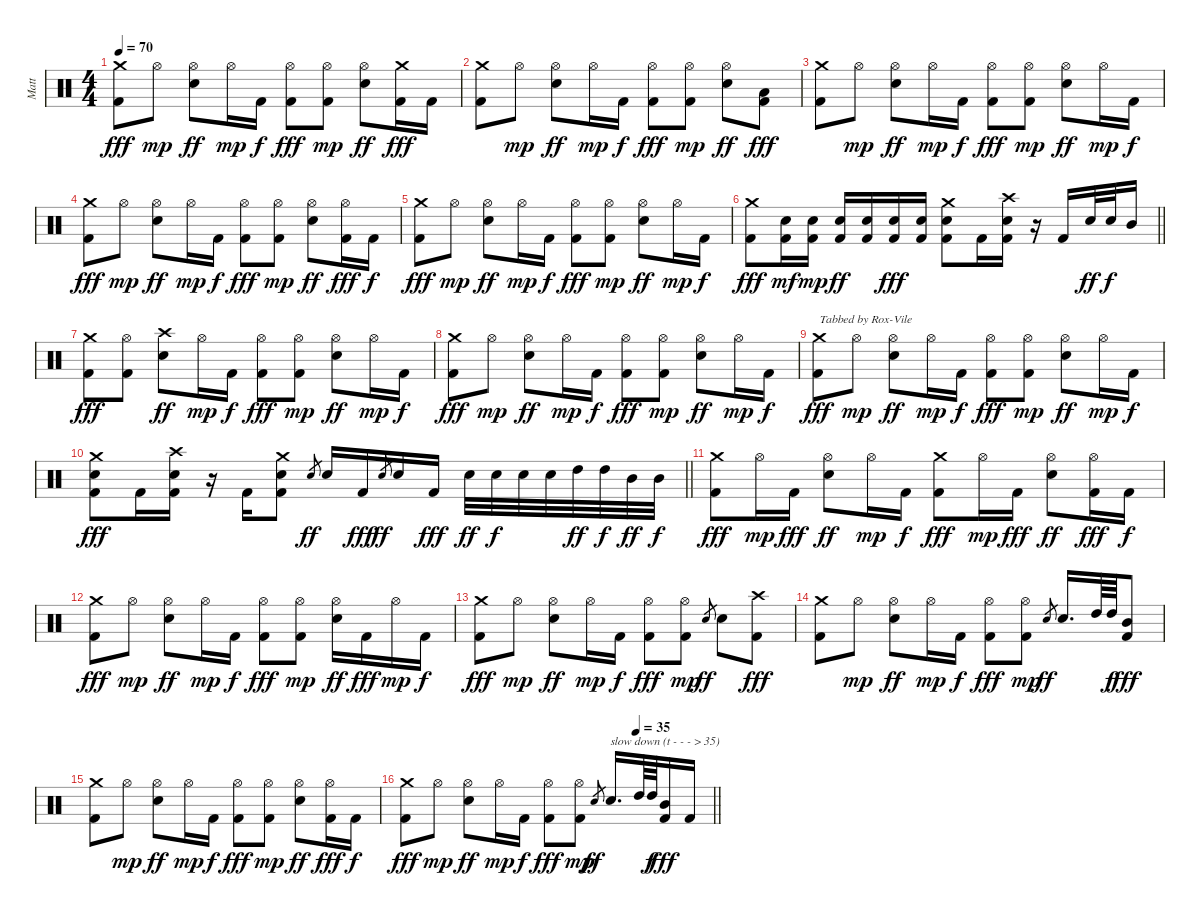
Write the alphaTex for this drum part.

\track ("Matt" "Matt") {instrument percussion}
\staff {score}
\articulation defaults
\ts (4 4)
\tempo 70
\clef neutral
\ks c
("Crash medium (hit)" "Kick (hit) 2").8{dy fff} "Hi-Hat (open)".8{dy mp} ("Hi-Hat (open)" "Snare (hit) 2").8{dy ff} "Hi-Hat (open)".16{dy mp} "Kick (hit) 2".16{dy f} ("Hi-Hat (open)" "Kick (hit) 2").8{dy fff} ("Hi-Hat (open)" "Kick (hit) 2").8{dy mp} ("Hi-Hat (open)" "Snare (hit) 2").8{dy ff} ("Crash medium (hit)" "Kick (hit) 2").16{dy fff} "Kick (hit) 2".16 |
("Crash medium (hit)" "Kick (hit) 2").8 "Hi-Hat (open)".8{dy mp} ("Hi-Hat (open)" "Snare (hit) 2").8{dy ff} "Hi-Hat (open)".16{dy mp} "Kick (hit) 2".16{dy f} ("Hi-Hat (open)" "Kick (hit) 2").8{dy fff} ("Hi-Hat (open)" "Kick (hit) 2").8{dy mp} ("Hi-Hat (open)" "Snare (hit) 2").8{dy ff} ("Low Tom (hit)" "Kick (hit) 2").8{dy fff} |
("Crash medium (hit)" "Kick (hit) 2").8 "Hi-Hat (open)".8{dy mp} ("Hi-Hat (open)" "Snare (hit) 2").8{dy ff} "Hi-Hat (open)".16{dy mp} "Kick (hit) 2".16{dy f} ("Hi-Hat (open)" "Kick (hit) 2").8{dy fff} ("Hi-Hat (open)" "Kick (hit) 2").8{dy mp} ("Hi-Hat (open)" "Snare (hit) 2").8{dy ff} "Hi-Hat (open)".16{dy mp} "Kick (hit) 2".16{dy f} |
("Crash medium (hit)" "Kick (hit) 2").8{dy fff} "Hi-Hat (open)".8{dy mp} ("Hi-Hat (open)" "Snare (hit) 2").8{dy ff} "Hi-Hat (open)".16{dy mp} "Kick (hit) 2".16{dy f} ("Hi-Hat (open)" "Kick (hit) 2").8{dy fff} ("Hi-Hat (open)" "Kick (hit) 2").8{dy mp} ("Hi-Hat (open)" "Snare (hit) 2").8{dy ff} ("Hi-Hat (open)" "Kick (hit) 2").16{dy fff} "Kick (hit) 2".16{dy f} |
("Crash medium (hit)" "Kick (hit) 2").8{dy fff} "Hi-Hat (open)".8{dy mp} ("Hi-Hat (open)" "Snare (hit) 2").8{dy ff} "Hi-Hat (open)".16{dy mp} "Kick (hit) 2".16{dy f} ("Hi-Hat (open)" "Kick (hit) 2").8{dy fff} ("Hi-Hat (open)" "Kick (hit) 2").8{dy mp} ("Hi-Hat (open)" "Snare (hit) 2").8{dy ff} "Hi-Hat (open)".16{dy mp} "Kick (hit) 2".16{dy f} |
\barLineRight lightlight
("Crash medium (hit)" "Kick (hit) 2").8{dy fff} ("Snare (hit) 2" "Kick (hit) 2").16{dy mf} ("Snare (hit) 2" "Kick (hit) 2").16{dy mp} ("Snare (hit) 2" "Kick (hit) 2").16{dy ff} ("Snare (hit) 2" "Kick (hit) 2").16 ("Snare (hit) 2" "Kick (hit) 2").16{dy fff} ("Snare (hit) 2" "Kick (hit) 2").16 ("Crash medium (hit)" "Snare (hit) 2" "Kick (hit) 2").8 "Kick (hit) 2".16 ("Crash high (hit)" "Snare (hit) 2" "Kick (hit) 2").16 r.16 "Kick (hit) 2".16 "Snare (hit) 2".32{dy ff} "Snare (hit) 2".32{dy f} "Mid Tom (hit)".16 |
("Crash medium (hit)" "Kick (hit) 2").8{dy fff} ("Hi-Hat (open)" "Kick (hit) 2").8 ("Crash high (hit)" "Snare (hit) 2").8{dy ff} "Hi-Hat (open)".16{dy mp} "Kick (hit) 2".16{dy f} ("Hi-Hat (open)" "Kick (hit) 2").8{dy fff} ("Hi-Hat (open)" "Kick (hit) 2").8{dy mp} ("Hi-Hat (open)" "Snare (hit) 2").8{dy ff} "Hi-Hat (open)".16{dy mp} "Kick (hit) 2".16{dy f} |
("Crash medium (hit)" "Kick (hit) 2").8{dy fff} "Hi-Hat (open)".8{dy mp} ("Hi-Hat (open)" "Snare (hit) 2").8{dy ff} "Hi-Hat (open)".16{dy mp} "Kick (hit) 2".16{dy f} ("Hi-Hat (open)" "Kick (hit) 2").8{dy fff} ("Hi-Hat (open)" "Kick (hit) 2").8{dy mp} ("Hi-Hat (open)" "Snare (hit) 2").8{dy ff} "Hi-Hat (open)".16{dy mp} "Kick (hit) 2".16{dy f} |
("Crash medium (hit)" "Kick (hit) 2").8{txt "Tabbed by Rox-Vile" dy fff} "Hi-Hat (open)".8{dy mp} ("Hi-Hat (open)" "Snare (hit) 2").8{dy ff} "Hi-Hat (open)".16{dy mp} "Kick (hit) 2".16{dy f} ("Hi-Hat (open)" "Kick (hit) 2").8{dy fff} ("Hi-Hat (open)" "Kick (hit) 2").8{dy mp} ("Hi-Hat (open)" "Snare (hit) 2").8{dy ff} "Hi-Hat (open)".16{dy mp} "Kick (hit) 2".16{dy f} |
\barLineRight lightlight
("Crash medium (hit)" "Snare (hit) 2" "Kick (hit) 2").8{dy fff} "Kick (hit) 2".16 ("Crash high (hit)" "Snare (hit) 2" "Kick (hit) 2").16 r.16 "Kick (hit) 2".16 ("Crash medium (hit)" "Snare (hit) 2" "Kick (hit) 2").8 "Snare (hit) 2".8{gr dy ff} "Snare (hit) 2".16 "Kick (hit) 2".16{dy fff} "Snare (hit) 2".8{gr dy ff} "Snare (hit) 2".16 "Kick (hit) 2".16{dy fff} "Snare (hit) 2".32{dy ff} "Snare (hit) 2".32{dy f} "Snare (hit) 2".32 "Snare (hit) 2".32 "High Tom (hit)".32{dy ff} "High Tom (hit)".32{dy f} "Mid Tom (hit)".32{dy ff} "Mid Tom (hit)".32{dy f} |
("Crash medium (hit)" "Kick (hit) 2").8{dy fff} "Hi-Hat (open)".16{dy mp} "Kick (hit) 2".16{dy fff} ("Hi-Hat (open)" "Snare (hit) 2").8{dy ff} "Hi-Hat (open)".16{dy mp} "Kick (hit) 2".16{dy f} ("Crash medium (hit)" "Kick (hit) 2").8{dy fff} "Hi-Hat (open)".16{dy mp} "Kick (hit) 2".16{dy fff} ("Hi-Hat (open)" "Snare (hit) 2").8{dy ff} ("Hi-Hat (open)" "Kick (hit) 2").16{dy fff} "Kick (hit) 2".16{dy f} |
("Crash medium (hit)" "Kick (hit) 2").8{dy fff} "Hi-Hat (open)".8{dy mp} ("Hi-Hat (open)" "Snare (hit) 2").8{dy ff} "Hi-Hat (open)".16{dy mp} "Kick (hit) 2".16{dy f} ("Hi-Hat (open)" "Kick (hit) 2").8{dy fff} ("Hi-Hat (open)" "Kick (hit) 2").8{dy mp} ("Hi-Hat (open)" "Snare (hit) 2").16{dy ff} "Kick (hit) 2".16{dy fff} "Hi-Hat (open)".16{dy mp} "Kick (hit) 2".16{dy f} |
("Crash medium (hit)" "Kick (hit) 2").8{dy fff} "Hi-Hat (open)".8{dy mp} ("Hi-Hat (open)" "Snare (hit) 2").8{dy ff} "Hi-Hat (open)".16{dy mp} "Kick (hit) 2".16{dy f} ("Hi-Hat (open)" "Kick (hit) 2").8{dy fff} ("Hi-Hat (open)" "Kick (hit) 2").8{dy mp} "Snare (hit) 2".8{gr dy ff} "Snare (hit) 2".8 ("Crash high (hit)" "Kick (hit) 2").8{dy fff} |
("Crash medium (hit)" "Kick (hit) 2").8 "Hi-Hat (open)".8{dy mp} ("Hi-Hat (open)" "Snare (hit) 2").8{dy ff} "Hi-Hat (open)".16{dy mp} "Kick (hit) 2".16{dy f} ("Hi-Hat (open)" "Kick (hit) 2").8{dy fff} ("Hi-Hat (open)" "Kick (hit) 2").8{dy mp} "Snare (hit) 2".8{gr dy ff} "Snare (hit) 2".16{d} "High Tom (hit)".64 "High Tom (hit)".64{dy f} ("Mid Tom (hit)" "Kick (hit) 2").8{dy fff} |
("Crash medium (hit)" "Kick (hit) 2").8 "Hi-Hat (open)".8{dy mp} ("Hi-Hat (open)" "Snare (hit) 2").8{dy ff} "Hi-Hat (open)".16{dy mp} "Kick (hit) 2".16{dy f} ("Hi-Hat (open)" "Kick (hit) 2").8{dy fff} ("Hi-Hat (open)" "Kick (hit) 2").8{dy mp} ("Hi-Hat (open)" "Snare (hit) 2").8{dy ff} ("Hi-Hat (open)" "Kick (hit) 2").16{dy fff} "Kick (hit) 2".16{dy f} |
\tempo (35 0.75)
\barLineRight lightlight
("Crash medium (hit)" "Kick (hit) 2").8{dy fff} "Hi-Hat (open)".8{dy mp} ("Hi-Hat (open)" "Snare (hit) 2").8{dy ff} "Hi-Hat (open)".16{dy mp} "Kick (hit) 2".16{dy f} ("Hi-Hat (open)" "Kick (hit) 2").8{dy fff} ("Hi-Hat (open)" "Kick (hit) 2").8{dy mp} "Snare (hit) 2".8{gr dy ff} "Snare (hit) 2".16{d txt "slow down (t - - - > 35)"} "High Tom (hit)".64 "High Tom (hit)".64{dy f} ("Mid Tom (hit)" "Kick (hit) 2").16{dy fff} "Kick (hit) 2".16
